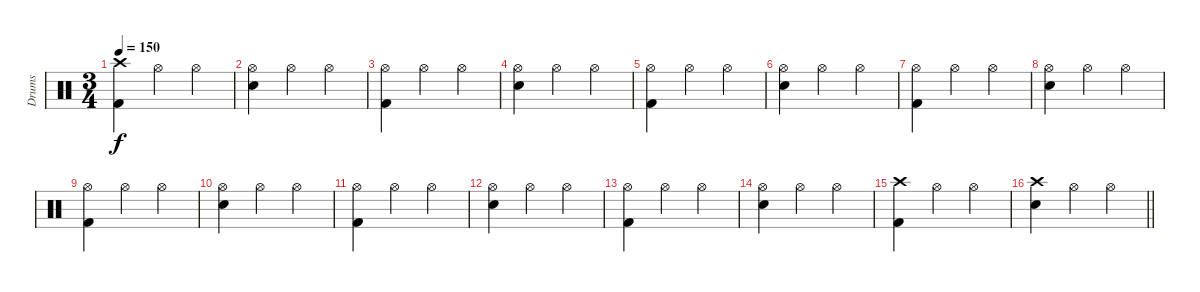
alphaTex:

\track ("Drums" "Drums") {instrument percussion}
\staff {score}
\articulation defaults
\ts (3 4)
\tempo 150
\clef neutral
\ks c
("Crash high (hit)" "Kick (hit) 2").4{dy f} "Hi-Hat (open)".4 "Hi-Hat (open)".4 |
("Hi-Hat (open)" "Snare (hit) 2").4 "Hi-Hat (open)".4 "Hi-Hat (open)".4 |
("Hi-Hat (open)" "Kick (hit) 2").4 "Hi-Hat (open)".4 "Hi-Hat (open)".4 |
("Hi-Hat (open)" "Snare (hit) 2").4 "Hi-Hat (open)".4 "Hi-Hat (open)".4 |
("Hi-Hat (open)" "Kick (hit) 2").4 "Hi-Hat (open)".4 "Hi-Hat (open)".4 |
("Hi-Hat (open)" "Snare (hit) 2").4 "Hi-Hat (open)".4 "Hi-Hat (open)".4 |
("Hi-Hat (open)" "Kick (hit) 2").4 "Hi-Hat (open)".4 "Hi-Hat (open)".4 |
("Hi-Hat (open)" "Snare (hit) 2").4 "Hi-Hat (open)".4 "Hi-Hat (open)".4 |
("Hi-Hat (open)" "Kick (hit) 2").4 "Hi-Hat (open)".4 "Hi-Hat (open)".4 |
("Hi-Hat (open)" "Snare (hit) 2").4 "Hi-Hat (open)".4 "Hi-Hat (open)".4 |
("Hi-Hat (open)" "Kick (hit) 2").4 "Hi-Hat (open)".4 "Hi-Hat (open)".4 |
("Hi-Hat (open)" "Snare (hit) 2").4 "Hi-Hat (open)".4 "Hi-Hat (open)".4 |
("Hi-Hat (open)" "Kick (hit) 2").4 "Hi-Hat (open)".4 "Hi-Hat (open)".4 |
("Hi-Hat (open)" "Snare (hit) 2").4 "Hi-Hat (open)".4 "Hi-Hat (open)".4 |
("Crash high (hit)" "Kick (hit) 2").4 "Hi-Hat (open)".4 "Hi-Hat (open)".4 |
\barLineRight lightlight
("Crash high (hit)" "Snare (hit) 2").4 "Hi-Hat (open)".4 "Hi-Hat (open)".4
